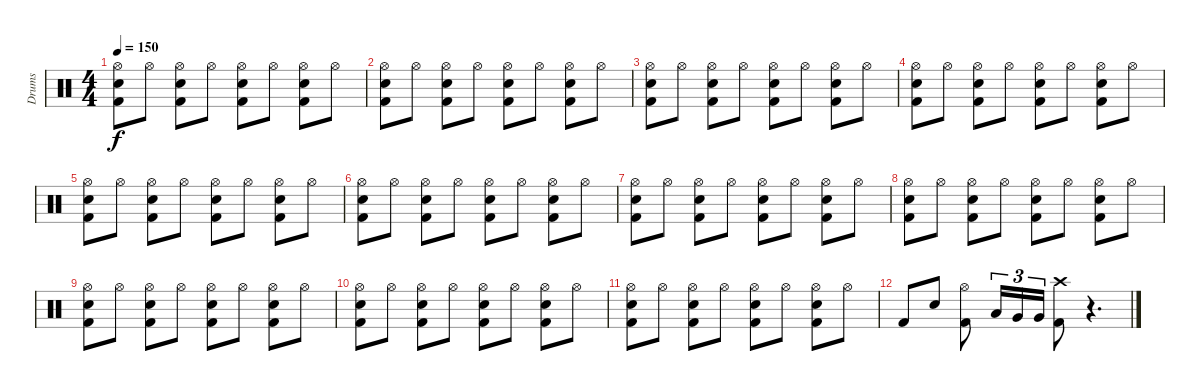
\track ("Drums" "Drums") {instrument percussion}
\staff {score}
\articulation defaults
\ts (4 4)
\tempo 150
\clef neutral
\ks c
("Hi-Hat (open)" "Snare (hit) 2" "Kick (hit) 2").8{dy f} "Hi-Hat (open)".8 ("Hi-Hat (open)" "Snare (hit) 2" "Kick (hit) 2").8 "Hi-Hat (open)".8 ("Hi-Hat (open)" "Snare (hit) 2" "Kick (hit) 2").8 "Hi-Hat (open)".8 ("Hi-Hat (open)" "Snare (hit) 2" "Kick (hit) 2").8 "Hi-Hat (open)".8 |
("Hi-Hat (open)" "Snare (hit) 2" "Kick (hit) 2").8 "Hi-Hat (open)".8 ("Hi-Hat (open)" "Snare (hit) 2" "Kick (hit) 2").8 "Hi-Hat (open)".8 ("Hi-Hat (open)" "Snare (hit) 2" "Kick (hit) 2").8 "Hi-Hat (open)".8 ("Hi-Hat (open)" "Snare (hit) 2" "Kick (hit) 2").8 "Hi-Hat (open)".8 |
("Hi-Hat (open)" "Snare (hit) 2" "Kick (hit) 2").8 "Hi-Hat (open)".8 ("Hi-Hat (open)" "Snare (hit) 2" "Kick (hit) 2").8 "Hi-Hat (open)".8 ("Hi-Hat (open)" "Snare (hit) 2" "Kick (hit) 2").8 "Hi-Hat (open)".8 ("Hi-Hat (open)" "Snare (hit) 2" "Kick (hit) 2").8 "Hi-Hat (open)".8 |
("Hi-Hat (open)" "Snare (hit) 2" "Kick (hit) 2").8 "Hi-Hat (open)".8 ("Hi-Hat (open)" "Snare (hit) 2" "Kick (hit) 2").8 "Hi-Hat (open)".8 ("Hi-Hat (open)" "Snare (hit) 2" "Kick (hit) 2").8 "Hi-Hat (open)".8 ("Hi-Hat (open)" "Snare (hit) 2" "Kick (hit) 2").8 "Hi-Hat (open)".8 |
("Hi-Hat (open)" "Snare (hit) 2" "Kick (hit) 2").8 "Hi-Hat (open)".8 ("Hi-Hat (open)" "Snare (hit) 2" "Kick (hit) 2").8 "Hi-Hat (open)".8 ("Hi-Hat (open)" "Snare (hit) 2" "Kick (hit) 2").8 "Hi-Hat (open)".8 ("Hi-Hat (open)" "Snare (hit) 2" "Kick (hit) 2").8 "Hi-Hat (open)".8 |
("Hi-Hat (open)" "Snare (hit) 2" "Kick (hit) 2").8 "Hi-Hat (open)".8 ("Hi-Hat (open)" "Snare (hit) 2" "Kick (hit) 2").8 "Hi-Hat (open)".8 ("Hi-Hat (open)" "Snare (hit) 2" "Kick (hit) 2").8 "Hi-Hat (open)".8 ("Hi-Hat (open)" "Snare (hit) 2" "Kick (hit) 2").8 "Hi-Hat (open)".8 |
("Hi-Hat (open)" "Snare (hit) 2" "Kick (hit) 2").8 "Hi-Hat (open)".8 ("Hi-Hat (open)" "Snare (hit) 2" "Kick (hit) 2").8 "Hi-Hat (open)".8 ("Hi-Hat (open)" "Snare (hit) 2" "Kick (hit) 2").8 "Hi-Hat (open)".8 ("Hi-Hat (open)" "Snare (hit) 2" "Kick (hit) 2").8 "Hi-Hat (open)".8 |
("Hi-Hat (open)" "Snare (hit) 2" "Kick (hit) 2").8 "Hi-Hat (open)".8 ("Hi-Hat (open)" "Snare (hit) 2" "Kick (hit) 2").8 "Hi-Hat (open)".8 ("Hi-Hat (open)" "Snare (hit) 2" "Kick (hit) 2").8 "Hi-Hat (open)".8 ("Hi-Hat (open)" "Snare (hit) 2" "Kick (hit) 2").8 "Hi-Hat (open)".8 |
("Hi-Hat (open)" "Snare (hit) 2" "Kick (hit) 2").8 "Hi-Hat (open)".8 ("Hi-Hat (open)" "Snare (hit) 2" "Kick (hit) 2").8 "Hi-Hat (open)".8 ("Hi-Hat (open)" "Snare (hit) 2" "Kick (hit) 2").8 "Hi-Hat (open)".8 ("Hi-Hat (open)" "Snare (hit) 2" "Kick (hit) 2").8 "Hi-Hat (open)".8 |
("Hi-Hat (open)" "Snare (hit) 2" "Kick (hit) 2").8 "Hi-Hat (open)".8 ("Hi-Hat (open)" "Snare (hit) 2" "Kick (hit) 2").8 "Hi-Hat (open)".8 ("Hi-Hat (open)" "Snare (hit) 2" "Kick (hit) 2").8 "Hi-Hat (open)".8 ("Hi-Hat (open)" "Snare (hit) 2" "Kick (hit) 2").8 "Hi-Hat (open)".8 |
("Hi-Hat (open)" "Snare (hit) 2" "Kick (hit) 2").8 "Hi-Hat (open)".8 ("Hi-Hat (open)" "Snare (hit) 2" "Kick (hit) 2").8 "Hi-Hat (open)".8 ("Hi-Hat (open)" "Snare (hit) 2" "Kick (hit) 2").8 "Hi-Hat (open)".8 ("Hi-Hat (open)" "Snare (hit) 2" "Kick (hit) 2").8 "Hi-Hat (open)".8 |
"Kick (hit) 2".8 "Snare (hit) 2".8 ("Hi-Hat (open)" "Kick (hit) 2").8 "Low Tom (hit)".16{tu (3 2)} "Very Low Tom (hit)".16{tu (3 2)} "Very Low Tom (hit)".16{tu (3 2)} ("Crash high (hit)" "Kick (hit) 2").8 r.4{d}
